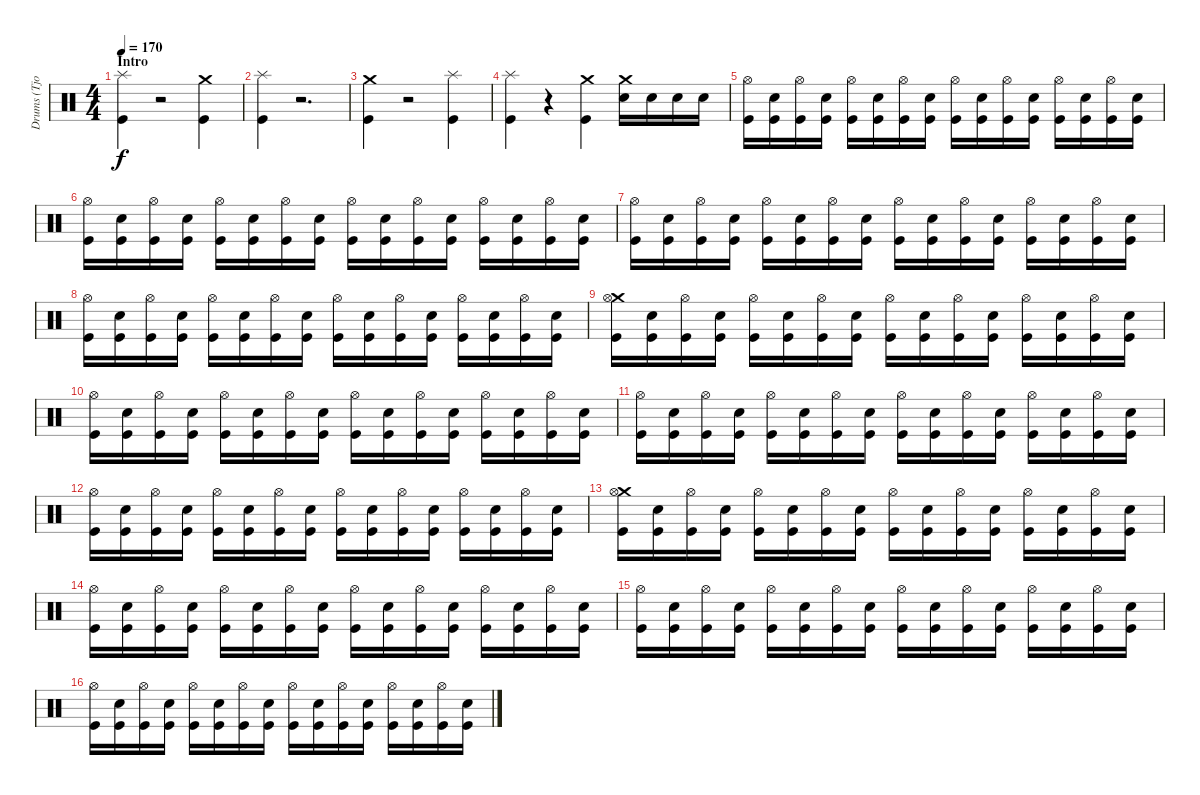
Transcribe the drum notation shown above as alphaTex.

\track ("Drums (Tjodalv)" "Drums (Tjo") {instrument percussion}
\staff {score}
\articulation defaults
\ts (4 4)
\section ("" "Intro")
\tempo 170
\clef neutral
\ks c
("Splash (hit)" "Kick (hit)").4{dy f} r.2 ("Crash medium (hit)" "Kick (hit)").4 |
("Splash (hit)" "Kick (hit)").4 r.2{d} |
("Crash medium (hit)" "Kick (hit)").4 r.2 ("Splash (hit)" "Kick (hit)").4 |
("Splash (hit)" "Kick (hit)").4 r.4 ("Crash medium (hit)" "Kick (hit)").4 ("Crash medium (hit)" "Electric Snare (hit)").16 "Electric Snare (hit)".16 "Electric Snare (hit)".16 "Electric Snare (hit)".16 |
("Hi-Hat (open)" "Kick (hit)").16 ("Kick (hit)" "Electric Snare (hit)").16 ("Hi-Hat (open)" "Kick (hit)").16 ("Kick (hit)" "Electric Snare (hit)").16 ("Hi-Hat (open)" "Kick (hit)").16 ("Kick (hit)" "Electric Snare (hit)").16 ("Hi-Hat (open)" "Kick (hit)").16 ("Kick (hit)" "Electric Snare (hit)").16 ("Hi-Hat (open)" "Kick (hit)").16 ("Kick (hit)" "Electric Snare (hit)").16 ("Hi-Hat (open)" "Kick (hit)").16 ("Kick (hit)" "Electric Snare (hit)").16 ("Hi-Hat (open)" "Kick (hit)").16 ("Kick (hit)" "Electric Snare (hit)").16 ("Hi-Hat (open)" "Kick (hit)").16 ("Kick (hit)" "Electric Snare (hit)").16 |
("Hi-Hat (open)" "Kick (hit)").16 ("Kick (hit)" "Electric Snare (hit)").16 ("Hi-Hat (open)" "Kick (hit)").16 ("Kick (hit)" "Electric Snare (hit)").16 ("Hi-Hat (open)" "Kick (hit)").16 ("Kick (hit)" "Electric Snare (hit)").16 ("Hi-Hat (open)" "Kick (hit)").16 ("Kick (hit)" "Electric Snare (hit)").16 ("Hi-Hat (open)" "Kick (hit)").16 ("Kick (hit)" "Electric Snare (hit)").16 ("Hi-Hat (open)" "Kick (hit)").16 ("Kick (hit)" "Electric Snare (hit)").16 ("Hi-Hat (open)" "Kick (hit)").16 ("Kick (hit)" "Electric Snare (hit)").16 ("Hi-Hat (open)" "Kick (hit)").16 ("Kick (hit)" "Electric Snare (hit)").16 |
("Hi-Hat (open)" "Kick (hit)").16 ("Kick (hit)" "Electric Snare (hit)").16 ("Hi-Hat (open)" "Kick (hit)").16 ("Kick (hit)" "Electric Snare (hit)").16 ("Hi-Hat (open)" "Kick (hit)").16 ("Kick (hit)" "Electric Snare (hit)").16 ("Hi-Hat (open)" "Kick (hit)").16 ("Kick (hit)" "Electric Snare (hit)").16 ("Hi-Hat (open)" "Kick (hit)").16 ("Kick (hit)" "Electric Snare (hit)").16 ("Hi-Hat (open)" "Kick (hit)").16 ("Kick (hit)" "Electric Snare (hit)").16 ("Hi-Hat (open)" "Kick (hit)").16 ("Kick (hit)" "Electric Snare (hit)").16 ("Hi-Hat (open)" "Kick (hit)").16 ("Kick (hit)" "Electric Snare (hit)").16 |
("Hi-Hat (open)" "Kick (hit)").16 ("Kick (hit)" "Electric Snare (hit)").16 ("Hi-Hat (open)" "Kick (hit)").16 ("Kick (hit)" "Electric Snare (hit)").16 ("Hi-Hat (open)" "Kick (hit)").16 ("Kick (hit)" "Electric Snare (hit)").16 ("Hi-Hat (open)" "Kick (hit)").16 ("Kick (hit)" "Electric Snare (hit)").16 ("Hi-Hat (open)" "Kick (hit)").16 ("Kick (hit)" "Electric Snare (hit)").16 ("Hi-Hat (open)" "Kick (hit)").16 ("Kick (hit)" "Electric Snare (hit)").16 ("Hi-Hat (open)" "Kick (hit)").16 ("Kick (hit)" "Electric Snare (hit)").16 ("Hi-Hat (open)" "Kick (hit)").16 ("Kick (hit)" "Electric Snare (hit)").16 |
("Crash medium (hit)" "Hi-Hat (open)" "Kick (hit)").16 ("Kick (hit)" "Electric Snare (hit)").16 ("Hi-Hat (open)" "Kick (hit)").16 ("Kick (hit)" "Electric Snare (hit)").16 ("Hi-Hat (open)" "Kick (hit)").16 ("Kick (hit)" "Electric Snare (hit)").16 ("Hi-Hat (open)" "Kick (hit)").16 ("Kick (hit)" "Electric Snare (hit)").16 ("Hi-Hat (open)" "Kick (hit)").16 ("Kick (hit)" "Electric Snare (hit)").16 ("Hi-Hat (open)" "Kick (hit)").16 ("Kick (hit)" "Electric Snare (hit)").16 ("Hi-Hat (open)" "Kick (hit)").16 ("Kick (hit)" "Electric Snare (hit)").16 ("Hi-Hat (open)" "Kick (hit)").16 ("Kick (hit)" "Electric Snare (hit)").16 |
("Hi-Hat (open)" "Kick (hit)").16 ("Kick (hit)" "Electric Snare (hit)").16 ("Hi-Hat (open)" "Kick (hit)").16 ("Kick (hit)" "Electric Snare (hit)").16 ("Hi-Hat (open)" "Kick (hit)").16 ("Kick (hit)" "Electric Snare (hit)").16 ("Hi-Hat (open)" "Kick (hit)").16 ("Kick (hit)" "Electric Snare (hit)").16 ("Hi-Hat (open)" "Kick (hit)").16 ("Kick (hit)" "Electric Snare (hit)").16 ("Hi-Hat (open)" "Kick (hit)").16 ("Kick (hit)" "Electric Snare (hit)").16 ("Hi-Hat (open)" "Kick (hit)").16 ("Kick (hit)" "Electric Snare (hit)").16 ("Hi-Hat (open)" "Kick (hit)").16 ("Kick (hit)" "Electric Snare (hit)").16 |
("Hi-Hat (open)" "Kick (hit)").16 ("Kick (hit)" "Electric Snare (hit)").16 ("Hi-Hat (open)" "Kick (hit)").16 ("Kick (hit)" "Electric Snare (hit)").16 ("Hi-Hat (open)" "Kick (hit)").16 ("Kick (hit)" "Electric Snare (hit)").16 ("Hi-Hat (open)" "Kick (hit)").16 ("Kick (hit)" "Electric Snare (hit)").16 ("Hi-Hat (open)" "Kick (hit)").16 ("Kick (hit)" "Electric Snare (hit)").16 ("Hi-Hat (open)" "Kick (hit)").16 ("Kick (hit)" "Electric Snare (hit)").16 ("Hi-Hat (open)" "Kick (hit)").16 ("Kick (hit)" "Electric Snare (hit)").16 ("Hi-Hat (open)" "Kick (hit)").16 ("Kick (hit)" "Electric Snare (hit)").16 |
("Hi-Hat (open)" "Kick (hit)").16 ("Kick (hit)" "Electric Snare (hit)").16 ("Hi-Hat (open)" "Kick (hit)").16 ("Kick (hit)" "Electric Snare (hit)").16 ("Hi-Hat (open)" "Kick (hit)").16 ("Kick (hit)" "Electric Snare (hit)").16 ("Hi-Hat (open)" "Kick (hit)").16 ("Kick (hit)" "Electric Snare (hit)").16 ("Hi-Hat (open)" "Kick (hit)").16 ("Kick (hit)" "Electric Snare (hit)").16 ("Hi-Hat (open)" "Kick (hit)").16 ("Kick (hit)" "Electric Snare (hit)").16 ("Hi-Hat (open)" "Kick (hit)").16 ("Kick (hit)" "Electric Snare (hit)").16 ("Hi-Hat (open)" "Kick (hit)").16 ("Kick (hit)" "Electric Snare (hit)").16 |
("Crash medium (hit)" "Hi-Hat (open)" "Kick (hit)").16 ("Kick (hit)" "Electric Snare (hit)").16 ("Hi-Hat (open)" "Kick (hit)").16 ("Kick (hit)" "Electric Snare (hit)").16 ("Hi-Hat (open)" "Kick (hit)").16 ("Kick (hit)" "Electric Snare (hit)").16 ("Hi-Hat (open)" "Kick (hit)").16 ("Kick (hit)" "Electric Snare (hit)").16 ("Hi-Hat (open)" "Kick (hit)").16 ("Kick (hit)" "Electric Snare (hit)").16 ("Hi-Hat (open)" "Kick (hit)").16 ("Kick (hit)" "Electric Snare (hit)").16 ("Hi-Hat (open)" "Kick (hit)").16 ("Kick (hit)" "Electric Snare (hit)").16 ("Hi-Hat (open)" "Kick (hit)").16 ("Kick (hit)" "Electric Snare (hit)").16 |
("Hi-Hat (open)" "Kick (hit)").16 ("Kick (hit)" "Electric Snare (hit)").16 ("Hi-Hat (open)" "Kick (hit)").16 ("Kick (hit)" "Electric Snare (hit)").16 ("Hi-Hat (open)" "Kick (hit)").16 ("Kick (hit)" "Electric Snare (hit)").16 ("Hi-Hat (open)" "Kick (hit)").16 ("Kick (hit)" "Electric Snare (hit)").16 ("Hi-Hat (open)" "Kick (hit)").16 ("Kick (hit)" "Electric Snare (hit)").16 ("Hi-Hat (open)" "Kick (hit)").16 ("Kick (hit)" "Electric Snare (hit)").16 ("Hi-Hat (open)" "Kick (hit)").16 ("Kick (hit)" "Electric Snare (hit)").16 ("Hi-Hat (open)" "Kick (hit)").16 ("Kick (hit)" "Electric Snare (hit)").16 |
("Hi-Hat (open)" "Kick (hit)").16 ("Kick (hit)" "Electric Snare (hit)").16 ("Hi-Hat (open)" "Kick (hit)").16 ("Kick (hit)" "Electric Snare (hit)").16 ("Hi-Hat (open)" "Kick (hit)").16 ("Kick (hit)" "Electric Snare (hit)").16 ("Hi-Hat (open)" "Kick (hit)").16 ("Kick (hit)" "Electric Snare (hit)").16 ("Hi-Hat (open)" "Kick (hit)").16 ("Kick (hit)" "Electric Snare (hit)").16 ("Hi-Hat (open)" "Kick (hit)").16 ("Kick (hit)" "Electric Snare (hit)").16 ("Hi-Hat (open)" "Kick (hit)").16 ("Kick (hit)" "Electric Snare (hit)").16 ("Hi-Hat (open)" "Kick (hit)").16 ("Kick (hit)" "Electric Snare (hit)").16 |
("Hi-Hat (open)" "Kick (hit)").16 ("Kick (hit)" "Electric Snare (hit)").16 ("Hi-Hat (open)" "Kick (hit)").16 ("Kick (hit)" "Electric Snare (hit)").16 ("Hi-Hat (open)" "Kick (hit)").16 ("Kick (hit)" "Electric Snare (hit)").16 ("Hi-Hat (open)" "Kick (hit)").16 ("Kick (hit)" "Electric Snare (hit)").16 ("Hi-Hat (open)" "Kick (hit)").16 ("Kick (hit)" "Electric Snare (hit)").16 ("Hi-Hat (open)" "Kick (hit)").16 ("Kick (hit)" "Electric Snare (hit)").16 ("Hi-Hat (open)" "Kick (hit)").16 ("Kick (hit)" "Electric Snare (hit)").16 ("Hi-Hat (open)" "Kick (hit)").16 ("Kick (hit)" "Electric Snare (hit)").16
